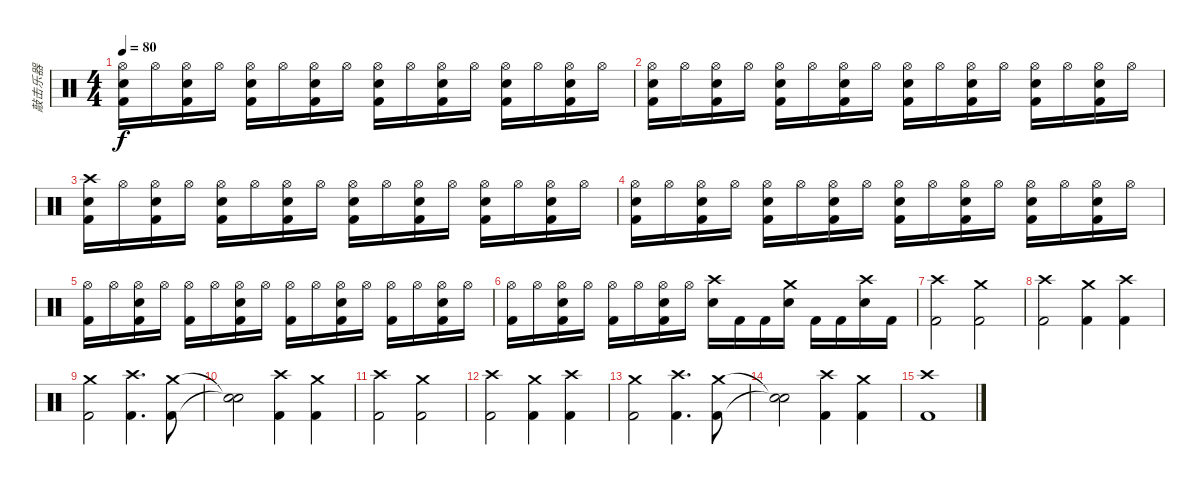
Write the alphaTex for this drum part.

\track ("敲击乐器" "敲击乐器") {instrument percussion}
\staff {score}
\articulation defaults
\ts (4 4)
\tempo 80
\clef neutral
\ks c
("Hi-Hat (open)" "Electric Snare (hit)" "Kick (hit) 2").16{dy f} "Hi-Hat (open)".16 ("Hi-Hat (open)" "Electric Snare (hit)" "Kick (hit) 2").16 "Hi-Hat (open)".16 ("Hi-Hat (open)" "Electric Snare (hit)" "Kick (hit) 2").16 "Hi-Hat (open)".16 ("Hi-Hat (open)" "Electric Snare (hit)" "Kick (hit) 2").16 "Hi-Hat (open)".16 ("Hi-Hat (open)" "Electric Snare (hit)" "Kick (hit) 2").16 "Hi-Hat (open)".16 ("Hi-Hat (open)" "Electric Snare (hit)" "Kick (hit) 2").16 "Hi-Hat (open)".16 ("Hi-Hat (open)" "Electric Snare (hit)" "Kick (hit) 2").16 "Hi-Hat (open)".16 ("Hi-Hat (open)" "Electric Snare (hit)" "Kick (hit) 2").16 "Hi-Hat (open)".16 |
("Hi-Hat (open)" "Electric Snare (hit)" "Kick (hit) 2").16 "Hi-Hat (open)".16 ("Hi-Hat (open)" "Electric Snare (hit)" "Kick (hit) 2").16 "Hi-Hat (open)".16 ("Hi-Hat (open)" "Electric Snare (hit)" "Kick (hit) 2").16 "Hi-Hat (open)".16 ("Hi-Hat (open)" "Electric Snare (hit)" "Kick (hit) 2").16 "Hi-Hat (open)".16 ("Hi-Hat (open)" "Electric Snare (hit)" "Kick (hit) 2").16 "Hi-Hat (open)".16 ("Hi-Hat (open)" "Electric Snare (hit)" "Kick (hit) 2").16 "Hi-Hat (open)".16 ("Hi-Hat (open)" "Electric Snare (hit)" "Kick (hit) 2").16 "Hi-Hat (open)".16 ("Hi-Hat (open)" "Electric Snare (hit)" "Kick (hit) 2").16 "Hi-Hat (open)".16 |
("Crash high (hit)" "Electric Snare (hit)" "Kick (hit) 2").16 "Hi-Hat (open)".16 ("Hi-Hat (open)" "Electric Snare (hit)" "Kick (hit) 2").16 "Hi-Hat (open)".16 ("Hi-Hat (open)" "Electric Snare (hit)" "Kick (hit) 2").16 "Hi-Hat (open)".16 ("Hi-Hat (open)" "Electric Snare (hit)" "Kick (hit) 2").16 "Hi-Hat (open)".16 ("Hi-Hat (open)" "Electric Snare (hit)" "Kick (hit) 2").16 "Hi-Hat (open)".16 ("Hi-Hat (open)" "Electric Snare (hit)" "Kick (hit) 2").16 "Hi-Hat (open)".16 ("Hi-Hat (open)" "Electric Snare (hit)" "Kick (hit) 2").16 "Hi-Hat (open)".16 ("Hi-Hat (open)" "Electric Snare (hit)" "Kick (hit) 2").16 "Hi-Hat (open)".16 |
("Hi-Hat (open)" "Electric Snare (hit)" "Kick (hit) 2").16 "Hi-Hat (open)".16 ("Hi-Hat (open)" "Electric Snare (hit)" "Kick (hit) 2").16 "Hi-Hat (open)".16 ("Hi-Hat (open)" "Electric Snare (hit)" "Kick (hit) 2").16 "Hi-Hat (open)".16 ("Hi-Hat (open)" "Electric Snare (hit)" "Kick (hit) 2").16 "Hi-Hat (open)".16 ("Hi-Hat (open)" "Electric Snare (hit)" "Kick (hit) 2").16 "Hi-Hat (open)".16 ("Hi-Hat (open)" "Electric Snare (hit)" "Kick (hit) 2").16 "Hi-Hat (open)".16 ("Hi-Hat (open)" "Electric Snare (hit)" "Kick (hit) 2").16 "Hi-Hat (open)".16 ("Hi-Hat (open)" "Electric Snare (hit)" "Kick (hit) 2").16 "Hi-Hat (open)".16 |
("Hi-Hat (open)" "Kick (hit) 2").16 "Hi-Hat (open)".16 ("Hi-Hat (open)" "Electric Snare (hit)" "Kick (hit) 2").16 "Hi-Hat (open)".16 ("Hi-Hat (open)" "Kick (hit) 2").16 "Hi-Hat (open)".16 ("Hi-Hat (open)" "Electric Snare (hit)" "Kick (hit) 2").16 "Hi-Hat (open)".16 ("Hi-Hat (open)" "Kick (hit) 2").16 "Hi-Hat (open)".16 ("Hi-Hat (open)" "Electric Snare (hit)" "Kick (hit) 2").16 "Hi-Hat (open)".16 ("Hi-Hat (open)" "Kick (hit) 2").16 "Hi-Hat (open)".16 ("Hi-Hat (open)" "Electric Snare (hit)" "Kick (hit) 2").16 "Hi-Hat (open)".16 |
("Hi-Hat (open)" "Kick (hit) 2").16 "Hi-Hat (open)".16 ("Hi-Hat (open)" "Electric Snare (hit)" "Kick (hit) 2").16 "Hi-Hat (open)".16 ("Hi-Hat (open)" "Kick (hit) 2").16 "Hi-Hat (open)".16 ("Hi-Hat (open)" "Electric Snare (hit)" "Kick (hit) 2").16 "Hi-Hat (open)".16 ("Crash high (hit)" "Electric Snare (hit)").16 "Kick (hit) 2".16 "Kick (hit) 2".16 ("Crash medium (hit)" "Electric Snare (hit)").16 "Kick (hit) 2".16 "Kick (hit) 2".16 ("Crash high (hit)" "Electric Snare (hit)").16 "Kick (hit) 2".16 |
("Crash high (hit)" "Kick (hit) 2").2 ("Crash medium (hit)" "Kick (hit) 2").2 |
("Crash high (hit)" "Kick (hit) 2").2 ("Crash medium (hit)" "Kick (hit) 2").4 ("Crash high (hit)" "Kick (hit) 2").4 |
("Crash medium (hit)" "Kick (hit) 2").2 ("Crash high (hit)" "Kick (hit) 2").4{d} ("Crash medium (hit)" "Kick (hit) 2").8 |
("Snare (hit)"{t} "Snare (hit)"{t}).2 ("Crash high (hit)" "Kick (hit) 2").4 ("Crash medium (hit)" "Kick (hit) 2").4 |
("Crash high (hit)" "Kick (hit) 2").2 ("Crash medium (hit)" "Kick (hit) 2").2 |
("Crash high (hit)" "Kick (hit) 2").2 ("Crash medium (hit)" "Kick (hit) 2").4 ("Crash high (hit)" "Kick (hit) 2").4 |
("Crash medium (hit)" "Kick (hit) 2").2 ("Crash high (hit)" "Kick (hit) 2").4{d} ("Crash medium (hit)" "Kick (hit) 2").8 |
("Snare (hit)"{t} "Snare (hit)"{t}).2 ("Crash high (hit)" "Kick (hit) 2").4 ("Crash medium (hit)" "Kick (hit) 2").4 |
("Crash high (hit)" "Kick (hit) 2").1
